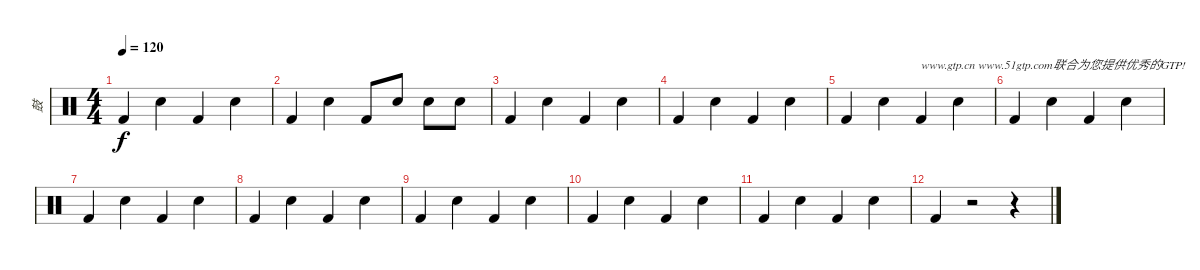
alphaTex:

\track ("鼓" "鼓") {instrument percussion}
\staff {score}
\articulation defaults
\ts (4 4)
\tempo 120
\clef neutral
\ks c "Kick (hit) 2".4{dy f} "Snare (hit) 2".4 "Kick (hit) 2".4 "Snare (hit) 2".4
|
"Kick (hit) 2".4 "Snare (hit) 2".4 "Kick (hit) 2".8 "Snare (hit) 2".8 "Snare (hit) 2".8 "Snare (hit) 2".8 |
"Kick (hit) 2".4 "Electric Snare (hit)".4 "Kick (hit) 2".4 "Electric Snare (hit)".4 |
"Kick (hit) 2".4 "Electric Snare (hit)".4 "Kick (hit) 2".4 "Electric Snare (hit)".4 |
"Kick (hit) 2".4 "Electric Snare (hit)".4 "Kick (hit) 2".4{txt "www.gtp.cn www.51gtp.com联合为您提供优秀的GTP!"} "Electric Snare (hit)".4 |
"Kick (hit) 2".4 "Electric Snare (hit)".4 "Kick (hit) 2".4 "Electric Snare (hit)".4 |
"Kick (hit) 2".4 "Electric Snare (hit)".4 "Kick (hit) 2".4 "Electric Snare (hit)".4 |
"Kick (hit) 2".4 "Electric Snare (hit)".4 "Kick (hit) 2".4 "Electric Snare (hit)".4 |
"Kick (hit) 2".4 "Electric Snare (hit)".4 "Kick (hit) 2".4 "Electric Snare (hit)".4 |
"Kick (hit) 2".4 "Electric Snare (hit)".4 "Kick (hit) 2".4 "Electric Snare (hit)".4 |
"Kick (hit) 2".4 "Electric Snare (hit)".4 "Kick (hit) 2".4 "Electric Snare (hit)".4 |
"Kick (hit) 2".4 r.2 r.4
